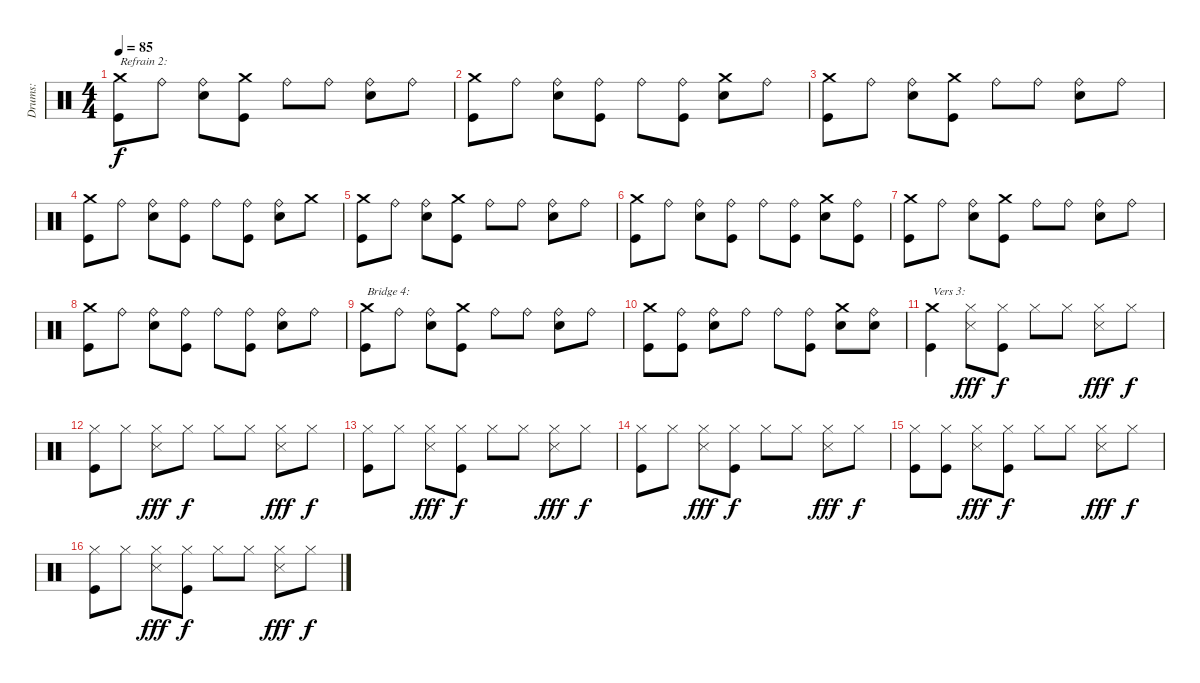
\track ("Drums:" "Drums:") {instrument percussion}
\staff {score}
\articulation defaults
\ts (4 4)
\tempo 85
\clef neutral
\ks c
("Crash medium (hit)" "Kick (hit)").8{txt "Refrain 2:" dy f} "Ride (bell)".8 ("Ride (bell)" "Snare (hit) 2").8 ("Crash medium (hit)" "Kick (hit)").8 "Ride (bell)".8 "Ride (bell)".8 ("Ride (bell)" "Snare (hit) 2").8 "Ride (bell)".8 |
("Crash medium (hit)" "Kick (hit)").8 "Ride (bell)".8 ("Ride (bell)" "Snare (hit) 2").8 ("Ride (bell)" "Kick (hit)").8 "Ride (bell)".8 ("Ride (bell)" "Kick (hit)").8 ("Crash medium (hit)" "Snare (hit) 2").8 "Ride (bell)".8 |
("Crash medium (hit)" "Kick (hit)").8 "Ride (bell)".8 ("Ride (bell)" "Snare (hit) 2").8 ("Crash medium (hit)" "Kick (hit)").8 "Ride (bell)".8 "Ride (bell)".8 ("Ride (bell)" "Snare (hit) 2").8 "Ride (bell)".8 |
("Crash medium (hit)" "Kick (hit)").8 "Ride (bell)".8 ("Ride (bell)" "Snare (hit) 2").8 ("Ride (bell)" "Kick (hit)").8 "Ride (bell)".8 ("Ride (bell)" "Kick (hit)").8 ("Ride (bell)" "Snare (hit) 2").8 "Crash medium (hit)".8 |
("Crash medium (hit)" "Kick (hit)").8 "Ride (bell)".8 ("Ride (bell)" "Snare (hit) 2").8 ("Crash medium (hit)" "Kick (hit)").8 "Ride (bell)".8 "Ride (bell)".8 ("Ride (bell)" "Snare (hit) 2").8 "Ride (bell)".8 |
("Crash medium (hit)" "Kick (hit)").8 "Ride (bell)".8 ("Ride (bell)" "Snare (hit) 2").8 ("Ride (bell)" "Kick (hit)").8 "Ride (bell)".8 ("Ride (bell)" "Kick (hit)").8 ("Crash medium (hit)" "Snare (hit) 2").8 ("Ride (bell)" "Kick (hit)").8 |
("Crash medium (hit)" "Kick (hit)").8 "Ride (bell)".8 ("Ride (bell)" "Snare (hit) 2").8 ("Crash medium (hit)" "Kick (hit)").8 "Ride (bell)".8 "Ride (bell)".8 ("Ride (bell)" "Snare (hit) 2").8 "Ride (bell)".8 |
("Crash medium (hit)" "Kick (hit)").8 "Ride (bell)".8 ("Ride (bell)" "Snare (hit) 2").8 ("Ride (bell)" "Kick (hit)").8 "Ride (bell)".8 ("Ride (bell)" "Kick (hit)").8 ("Ride (bell)" "Snare (hit) 2").8 "Ride (bell)".8 |
("Crash medium (hit)" "Kick (hit)").8{txt "Bridge 4:"} "Ride (bell)".8 ("Ride (bell)" "Snare (hit) 2").8 ("Crash medium (hit)" "Kick (hit)").8 "Ride (bell)".8 "Ride (bell)".8 ("Ride (bell)" "Snare (hit) 2").8 "Ride (bell)".8 |
("Crash medium (hit)" "Kick (hit)").8 ("Ride (bell)" "Kick (hit)").8 ("Ride (bell)" "Snare (hit) 2").8 "Ride (bell)".8 "Ride (bell)".8 ("Ride (bell)" "Kick (hit)").8 ("Crash medium (hit)" "Snare (hit) 2").8 ("Ride (bell)" "Snare (hit) 2").8 |
("Crash medium (hit)" "Kick (hit)").4{txt "Vers 3:"} ("Hi-Hat (closed)" "Snare (side stick) 3").8{dy fff} ("Hi-Hat (closed)" "Kick (hit)").8{dy f} "Hi-Hat (closed)".8 "Hi-Hat (closed)".8 ("Hi-Hat (closed)" "Snare (side stick) 3").8{dy fff} "Hi-Hat (closed)".8{dy f} |
("Hi-Hat (closed)" "Kick (hit)").8 "Hi-Hat (closed)".8 ("Hi-Hat (closed)" "Snare (side stick) 3").8{dy fff} "Hi-Hat (closed)".8{dy f} "Hi-Hat (closed)".8 "Hi-Hat (closed)".8 ("Hi-Hat (closed)" "Snare (side stick) 3").8{dy fff} "Hi-Hat (closed)".8{dy f} |
("Hi-Hat (closed)" "Kick (hit)").8 "Hi-Hat (closed)".8 ("Hi-Hat (closed)" "Snare (side stick) 3").8{dy fff} ("Hi-Hat (closed)" "Kick (hit)").8{dy f} "Hi-Hat (closed)".8 "Hi-Hat (closed)".8 ("Hi-Hat (closed)" "Snare (side stick) 3").8{dy fff} "Hi-Hat (closed)".8{dy f} |
("Hi-Hat (closed)" "Kick (hit)").8 "Hi-Hat (closed)".8 ("Hi-Hat (closed)" "Snare (side stick) 3").8{dy fff} ("Hi-Hat (closed)" "Kick (hit)").8{dy f} "Hi-Hat (closed)".8 "Hi-Hat (closed)".8 ("Hi-Hat (closed)" "Snare (side stick) 3").8{dy fff} "Hi-Hat (closed)".8{dy f} |
("Hi-Hat (closed)" "Kick (hit)").8 ("Hi-Hat (closed)" "Kick (hit)").8 ("Hi-Hat (closed)" "Snare (side stick) 3").8{dy fff} ("Hi-Hat (closed)" "Kick (hit)").8{dy f} "Hi-Hat (closed)".8 "Hi-Hat (closed)".8 ("Hi-Hat (closed)" "Snare (side stick) 3").8{dy fff} "Hi-Hat (closed)".8{dy f} |
("Hi-Hat (closed)" "Kick (hit)").8 "Hi-Hat (closed)".8 ("Hi-Hat (closed)" "Snare (side stick) 3").8{dy fff} ("Hi-Hat (closed)" "Kick (hit)").8{dy f} "Hi-Hat (closed)".8 "Hi-Hat (closed)".8 ("Hi-Hat (closed)" "Snare (side stick) 3").8{dy fff} "Hi-Hat (closed)".8{dy f}
